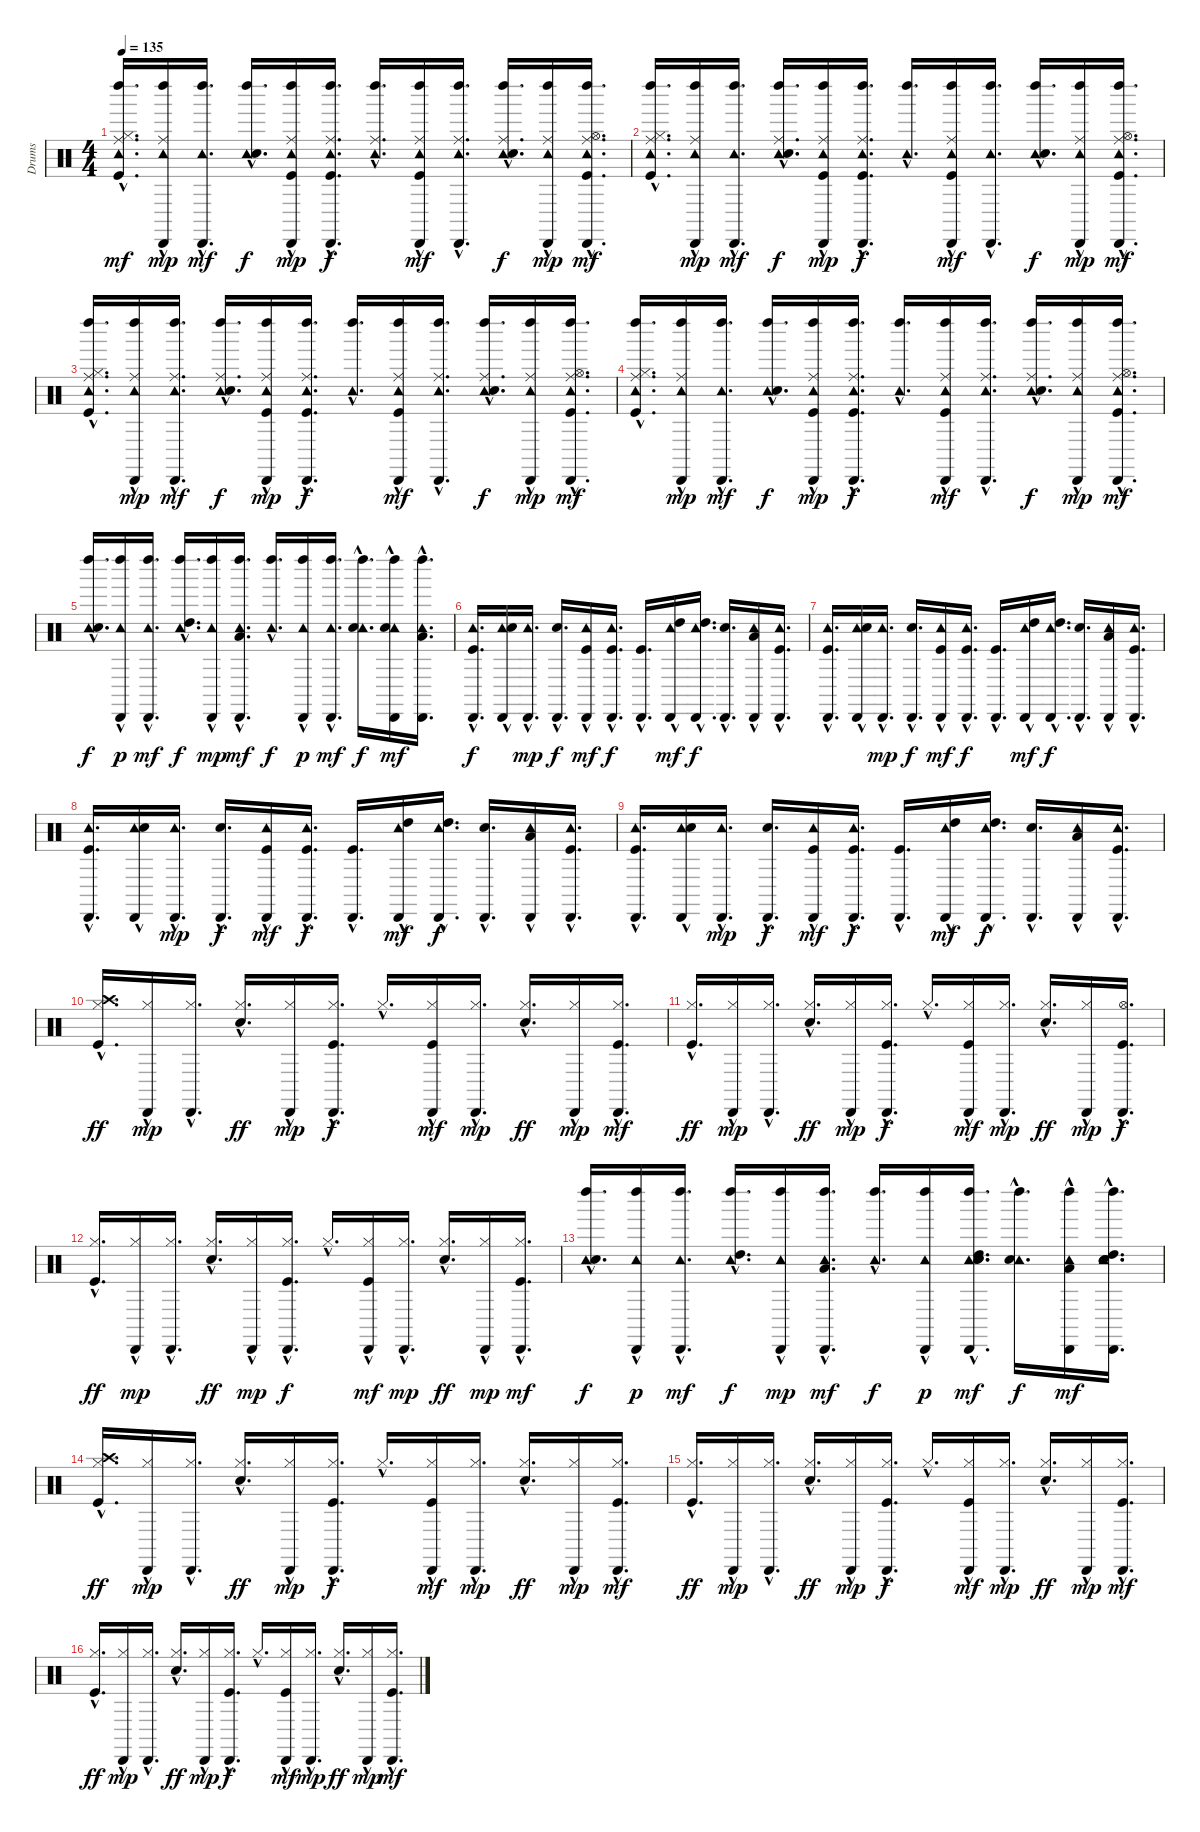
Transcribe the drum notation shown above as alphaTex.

\track ("Drums" "Drums") {instrument percussion}
\staff {score}
\articulation defaults
\ts (4 4)
\tempo 135
\clef neutral
\ks c
("Left Maraca (hit)"{hac} "Tambourine (hit)"{hac} "Ride (middle)"{hac} "Hi-Hat (closed)"{hac} "Kick (hit)"{hac}).16{d dy mf} ("Left Maraca (hit)"{hac} "Cabasa (hit)"{hac} "Tambourine (hit)"{hac} "Ride (middle)"{hac}).16{dy mp} ("Left Maraca (hit)"{hac} "Cabasa (hit)"{hac} "Tambourine (hit)"{hac}).16{d dy mf} ("Left Maraca (hit)"{hac} "Tambourine (hit)"{hac} "Snare (hit) 2"{hac}).16{d dy f} ("Left Maraca (hit)"{hac} "Cabasa (hit)"{hac} "Tambourine (hit)"{hac} "Ride (middle)"{hac} "Kick (hit)"{hac}).16{dy mp} ("Left Maraca (hit)"{hac} "Cabasa (hit)"{hac} "Tambourine (hit)"{hac} "Ride (middle)"{hac} "Kick (hit)"{hac}).16{d dy f} ("Left Maraca (hit)"{hac} "Tambourine (hit)"{hac} "Ride (middle)"{hac}).16{d} ("Left Maraca (hit)"{hac} "Cabasa (hit)"{hac} "Tambourine (hit)"{hac} "Ride (middle)"{hac} "Kick (hit)"{hac}).16{dy mf} ("Left Maraca (hit)"{hac} "Cabasa (hit)"{hac} "Tambourine (hit)"{hac} "Ride (middle)"{hac}).16{d} ("Left Maraca (hit)"{hac} "Tambourine (hit)"{hac} "Ride (middle)"{hac} "Snare (hit) 2"{hac}).16{d dy f} ("Left Maraca (hit)"{hac} "Cabasa (hit)"{hac} "Tambourine (hit)"{hac} "Ride (middle)"{hac}).16{dy mp} ("Left Maraca (hit)"{hac} "Cabasa (hit)"{hac} "Tambourine (hit)"{hac} "Ride (middle)"{hac} "Hi-Hat (open)"{hac} "Kick (hit)"{hac}).16{d dy mf} |
("Left Maraca (hit)"{hac} "Tambourine (hit)"{hac} "Ride (middle)"{hac} "Hi-Hat (closed)"{hac} "Kick (hit)"{hac}).16{d} ("Left Maraca (hit)"{hac} "Cabasa (hit)"{hac} "Tambourine (hit)"{hac} "Ride (middle)"{hac}).16{dy mp} ("Left Maraca (hit)"{hac} "Cabasa (hit)"{hac} "Tambourine (hit)"{hac}).16{d dy mf} ("Left Maraca (hit)"{hac} "Tambourine (hit)"{hac} "Ride (middle)"{hac} "Snare (hit) 2"{hac}).16{d dy f} ("Left Maraca (hit)"{hac} "Cabasa (hit)"{hac} "Tambourine (hit)"{hac} "Ride (middle)"{hac} "Kick (hit)"{hac}).16{dy mp} ("Left Maraca (hit)"{hac} "Cabasa (hit)"{hac} "Tambourine (hit)"{hac} "Ride (middle)"{hac} "Kick (hit)"{hac}).16{d dy f} ("Left Maraca (hit)"{hac} "Tambourine (hit)"{hac}).16{d} ("Left Maraca (hit)"{hac} "Cabasa (hit)"{hac} "Tambourine (hit)"{hac} "Ride (middle)"{hac} "Kick (hit)"{hac}).16{dy mf} ("Left Maraca (hit)"{hac} "Cabasa (hit)"{hac} "Tambourine (hit)"{hac}).16{d} ("Left Maraca (hit)"{hac} "Tambourine (hit)"{hac} "Snare (hit) 2"{hac}).16{d dy f} ("Left Maraca (hit)"{hac} "Cabasa (hit)"{hac} "Tambourine (hit)"{hac} "Ride (middle)"{hac}).16{dy mp} ("Left Maraca (hit)"{hac} "Cabasa (hit)"{hac} "Tambourine (hit)"{hac} "Ride (middle)"{hac} "Hi-Hat (open)"{hac} "Kick (hit)"{hac}).16{d dy mf} |
("Left Maraca (hit)"{hac} "Tambourine (hit)"{hac} "Ride (middle)"{hac} "Hi-Hat (closed)"{hac} "Kick (hit)"{hac}).16{d} ("Left Maraca (hit)"{hac} "Cabasa (hit)"{hac} "Tambourine (hit)"{hac} "Ride (middle)"{hac}).16{dy mp} ("Left Maraca (hit)"{hac} "Cabasa (hit)"{hac} "Tambourine (hit)"{hac} "Ride (middle)"{hac}).16{d dy mf} ("Left Maraca (hit)"{hac} "Tambourine (hit)"{hac} "Ride (middle)"{hac} "Snare (hit) 2"{hac}).16{d dy f} ("Left Maraca (hit)"{hac} "Cabasa (hit)"{hac} "Tambourine (hit)"{hac} "Ride (middle)"{hac} "Kick (hit)"{hac}).16{dy mp} ("Left Maraca (hit)"{hac} "Cabasa (hit)"{hac} "Tambourine (hit)"{hac} "Ride (middle)"{hac} "Kick (hit)"{hac}).16{d dy f} ("Left Maraca (hit)"{hac} "Tambourine (hit)"{hac}).16{d} ("Left Maraca (hit)"{hac} "Cabasa (hit)"{hac} "Tambourine (hit)"{hac} "Ride (middle)"{hac} "Kick (hit)"{hac}).16{dy mf} ("Left Maraca (hit)"{hac} "Cabasa (hit)"{hac} "Tambourine (hit)"{hac} "Ride (middle)"{hac}).16{d} ("Left Maraca (hit)"{hac} "Tambourine (hit)"{hac} "Ride (middle)"{hac} "Snare (hit) 2"{hac}).16{d dy f} ("Left Maraca (hit)"{hac} "Cabasa (hit)"{hac} "Tambourine (hit)"{hac} "Ride (middle)"{hac}).16{dy mp} ("Left Maraca (hit)"{hac} "Cabasa (hit)"{hac} "Tambourine (hit)"{hac} "Ride (middle)"{hac} "Hi-Hat (open)"{hac} "Kick (hit)"{hac}).16{d dy mf} |
("Left Maraca (hit)"{hac} "Tambourine (hit)"{hac} "Ride (middle)"{hac} "Hi-Hat (closed)"{hac} "Kick (hit)"{hac}).16{d} ("Left Maraca (hit)"{hac} "Cabasa (hit)"{hac} "Tambourine (hit)"{hac} "Ride (middle)"{hac}).16{dy mp} ("Left Maraca (hit)"{hac} "Cabasa (hit)"{hac} "Tambourine (hit)"{hac}).16{d dy mf} ("Left Maraca (hit)"{hac} "Tambourine (hit)"{hac} "Snare (hit) 2"{hac}).16{d dy f} ("Left Maraca (hit)"{hac} "Cabasa (hit)"{hac} "Tambourine (hit)"{hac} "Ride (middle)"{hac} "Kick (hit)"{hac}).16{dy mp} ("Left Maraca (hit)"{hac} "Cabasa (hit)"{hac} "Tambourine (hit)"{hac} "Ride (middle)"{hac} "Kick (hit)"{hac}).16{d dy f} ("Left Maraca (hit)"{hac} "Tambourine (hit)"{hac}).16{d} ("Left Maraca (hit)"{hac} "Cabasa (hit)"{hac} "Tambourine (hit)"{hac} "Ride (middle)"{hac} "Kick (hit)"{hac}).16{dy mf} ("Left Maraca (hit)"{hac} "Cabasa (hit)"{hac} "Tambourine (hit)"{hac} "Ride (middle)"{hac}).16{d} ("Left Maraca (hit)"{hac} "Tambourine (hit)"{hac} "Ride (middle)"{hac} "Snare (hit) 2"{hac}).16{d dy f} ("Left Maraca (hit)"{hac} "Cabasa (hit)"{hac} "Tambourine (hit)"{hac} "Ride (middle)"{hac}).16{dy mp} ("Left Maraca (hit)"{hac} "Cabasa (hit)"{hac} "Tambourine (hit)"{hac} "Ride (middle)"{hac} "Hi-Hat (open)"{hac} "Kick (hit)"{hac}).16{d dy mf} |
("Left Maraca (hit)"{hac} "Tambourine (hit)"{hac} "Snare (hit) 2"{hac}).16{d dy f} ("Left Maraca (hit)"{hac} "Cabasa (hit)"{hac} "Tambourine (hit)"{hac}).16{dy p} ("Left Maraca (hit)"{hac} "Cabasa (hit)"{hac} "Tambourine (hit)"{hac}).16{d dy mf} ("Left Maraca (hit)"{hac} "Tambourine (hit)"{hac} "High Tom (hit)"{hac}).16{d dy f} ("Left Maraca (hit)"{hac} "Cabasa (hit)"{hac} "Tambourine (hit)"{hac}).16{dy mp} ("Left Maraca (hit)"{hac} "Cabasa (hit)"{hac} "Tambourine (hit)"{hac} "Low Tom (hit)"{hac}).16{d dy mf} ("Left Maraca (hit)"{hac} "Tambourine (hit)"{hac}).16{d dy f} ("Left Maraca (hit)"{hac} "Cabasa (hit)"{hac} "Tambourine (hit)"{hac}).16{dy p} ("Left Maraca (hit)"{hac} "Cabasa (hit)"{hac} "Tambourine (hit)"{hac}).16{d dy mf} ("Left Maraca (hit)"{hac} "Tambourine (hit)"{hac} "Snare (hit) 2"{hac}).16{d dy f} ("Left Maraca (hit)"{hac} "Cabasa (hit)"{hac} "Tambourine (hit)"{hac} "Snare (hit) 2"{hac}).16{dy mf} ("Left Maraca (hit)"{hac} "Cabasa (hit)"{hac} "Tambourine (hit)"{hac} "Low Floor Tom (hit)"{hac}).16{d} |
("Cabasa (hit)"{hac} "Tambourine (hit)"{hac} "Kick (hit)"{hac}).16{d dy f} ("Cabasa (hit)"{hac} "Tambourine (hit)"{hac} "Snare (hit) 2"{hac}).16 ("Cabasa (hit)"{hac} "Tambourine (hit)"{hac}).16{d dy mp} ("Cabasa (hit)"{hac} "Snare (hit) 2"{hac}).16{d dy f} ("Cabasa (hit)"{hac} "Tambourine (hit)"{hac} "Kick (hit)"{hac}).16{dy mf} ("Cabasa (hit)"{hac} "Tambourine (hit)"{hac} "Kick (hit)"{hac}).16{d dy f} ("Cabasa (hit)"{hac} "Kick (hit)"{hac}).16{d} ("Cabasa (hit)"{hac} "Tambourine (hit)"{hac} "High Tom (hit)"{hac}).16{dy mf} ("Cabasa (hit)"{hac} "Tambourine (hit)"{hac} "High Tom (hit)"{hac}).16{d dy f} ("Cabasa (hit)"{hac} "Snare (hit) 2"{hac}).16{d} ("Cabasa (hit)"{hac} "Tambourine (hit)"{hac} "Low Tom (hit)"{hac}).16 ("Cabasa (hit)"{hac} "Tambourine (hit)"{hac} "Kick (hit)"{hac}).16{d} |
("Cabasa (hit)"{hac} "Tambourine (hit)"{hac} "Kick (hit)"{hac}).16{d} ("Cabasa (hit)"{hac} "Tambourine (hit)"{hac} "Snare (hit) 2"{hac}).16 ("Cabasa (hit)"{hac} "Tambourine (hit)"{hac}).16{d dy mp} ("Cabasa (hit)"{hac} "Snare (hit) 2"{hac}).16{d dy f} ("Cabasa (hit)"{hac} "Tambourine (hit)"{hac} "Kick (hit)"{hac}).16{dy mf} ("Cabasa (hit)"{hac} "Tambourine (hit)"{hac} "Kick (hit)"{hac}).16{d dy f} ("Cabasa (hit)"{hac} "Kick (hit)"{hac}).16{d} ("Cabasa (hit)"{hac} "Tambourine (hit)"{hac} "High Tom (hit)"{hac}).16{dy mf} ("Cabasa (hit)"{hac} "Tambourine (hit)"{hac} "High Tom (hit)"{hac}).16{d dy f} ("Cabasa (hit)"{hac} "Snare (hit) 2"{hac}).16{d} ("Cabasa (hit)"{hac} "Tambourine (hit)"{hac} "Low Tom (hit)"{hac}).16 ("Cabasa (hit)"{hac} "Tambourine (hit)"{hac} "Kick (hit)"{hac}).16{d} |
("Cabasa (hit)"{hac} "Tambourine (hit)"{hac} "Kick (hit)"{hac}).16{d} ("Cabasa (hit)"{hac} "Tambourine (hit)"{hac} "Snare (hit) 2"{hac}).16 ("Cabasa (hit)"{hac} "Tambourine (hit)"{hac}).16{d dy mp} ("Cabasa (hit)"{hac} "Snare (hit) 2"{hac}).16{d dy f} ("Cabasa (hit)"{hac} "Tambourine (hit)"{hac} "Kick (hit)"{hac}).16{dy mf} ("Cabasa (hit)"{hac} "Tambourine (hit)"{hac} "Kick (hit)"{hac}).16{d dy f} ("Cabasa (hit)"{hac} "Kick (hit)"{hac}).16{d} ("Cabasa (hit)"{hac} "Tambourine (hit)"{hac} "High Tom (hit)"{hac}).16{dy mf} ("Cabasa (hit)"{hac} "Tambourine (hit)"{hac} "High Tom (hit)"{hac}).16{d dy f} ("Cabasa (hit)"{hac} "Snare (hit) 2"{hac}).16{d} ("Cabasa (hit)"{hac} "Tambourine (hit)"{hac} "Low Tom (hit)"{hac}).16 ("Cabasa (hit)"{hac} "Tambourine (hit)"{hac} "Kick (hit)"{hac}).16{d} |
("Cabasa (hit)"{hac} "Tambourine (hit)"{hac} "Kick (hit)"{hac}).16{d} ("Cabasa (hit)"{hac} "Tambourine (hit)"{hac} "Snare (hit) 2"{hac}).16 ("Cabasa (hit)"{hac} "Tambourine (hit)"{hac}).16{d dy mp} ("Cabasa (hit)"{hac} "Snare (hit) 2"{hac}).16{d dy f} ("Cabasa (hit)"{hac} "Tambourine (hit)"{hac} "Kick (hit)"{hac}).16{dy mf} ("Cabasa (hit)"{hac} "Tambourine (hit)"{hac} "Kick (hit)"{hac}).16{d dy f} ("Cabasa (hit)"{hac} "Kick (hit)"{hac}).16{d} ("Cabasa (hit)"{hac} "Tambourine (hit)"{hac} "High Tom (hit)"{hac}).16{dy mf} ("Cabasa (hit)"{hac} "Tambourine (hit)"{hac} "High Tom (hit)"{hac}).16{d dy f} ("Cabasa (hit)"{hac} "Snare (hit) 2"{hac}).16{d} ("Cabasa (hit)"{hac} "Tambourine (hit)"{hac} "Low Tom (hit)"{hac}).16 ("Cabasa (hit)"{hac} "Tambourine (hit)"{hac} "Kick (hit)"{hac}).16{d} |
("Crash high (hit)"{hac} "Hi-Hat (closed)"{hac} "Kick (hit)"{hac}).16{d dy ff} ("Cabasa (hit)"{hac} "Hi-Hat (closed)"{hac}).16{dy mp} ("Cabasa (hit)"{hac} "Hi-Hat (closed)"{hac}).16{d} ("Hi-Hat (closed)"{hac} "Snare (hit) 2"{hac}).16{d dy ff} ("Cabasa (hit)"{hac} "Hi-Hat (closed)"{hac}).16{dy mp} ("Cabasa (hit)"{hac} "Hi-Hat (closed)"{hac} "Kick (hit)"{hac}).16{d dy f} "Hi-Hat (closed)"{hac}.16{d} ("Cabasa (hit)"{hac} "Hi-Hat (closed)"{hac} "Kick (hit)"{hac}).16{dy mf} ("Cabasa (hit)"{hac} "Hi-Hat (closed)"{hac}).16{d dy mp} ("Hi-Hat (closed)"{hac} "Snare (hit) 2"{hac}).16{d dy ff} ("Cabasa (hit)"{hac} "Hi-Hat (closed)"{hac}).16{dy mp} ("Cabasa (hit)"{hac} "Hi-Hat (closed)"{hac} "Kick (hit)"{hac}).16{d dy mf} |
("Hi-Hat (closed)"{hac} "Kick (hit)"{hac}).16{d dy ff} ("Cabasa (hit)"{hac} "Hi-Hat (closed)"{hac}).16{dy mp} ("Cabasa (hit)"{hac} "Hi-Hat (closed)"{hac}).16{d} ("Hi-Hat (closed)"{hac} "Snare (hit) 2"{hac}).16{d dy ff} ("Cabasa (hit)"{hac} "Hi-Hat (closed)"{hac}).16{dy mp} ("Cabasa (hit)"{hac} "Hi-Hat (closed)"{hac} "Kick (hit)"{hac}).16{d dy f} "Hi-Hat (closed)"{hac}.16{d} ("Cabasa (hit)"{hac} "Hi-Hat (closed)"{hac} "Kick (hit)"{hac}).16{dy mf} ("Cabasa (hit)"{hac} "Hi-Hat (closed)"{hac}).16{d dy mp} ("Hi-Hat (closed)"{hac} "Snare (hit) 2"{hac}).16{d dy ff} ("Cabasa (hit)"{hac} "Hi-Hat (closed)"{hac}).16{dy mp} ("Cabasa (hit)"{hac} "Hi-Hat (open)"{hac} "Kick (hit)"{hac}).16{d dy f} |
("Hi-Hat (closed)"{hac} "Kick (hit)"{hac}).16{d dy ff} ("Cabasa (hit)"{hac} "Hi-Hat (closed)"{hac}).16{dy mp} ("Cabasa (hit)"{hac} "Hi-Hat (closed)"{hac}).16{d} ("Hi-Hat (closed)"{hac} "Snare (hit) 2"{hac}).16{d dy ff} ("Cabasa (hit)"{hac} "Hi-Hat (closed)"{hac}).16{dy mp} ("Cabasa (hit)"{hac} "Hi-Hat (closed)"{hac} "Kick (hit)"{hac}).16{d dy f} "Hi-Hat (closed)"{hac}.16{d} ("Cabasa (hit)"{hac} "Hi-Hat (closed)"{hac} "Kick (hit)"{hac}).16{dy mf} ("Cabasa (hit)"{hac} "Hi-Hat (closed)"{hac}).16{d dy mp} ("Hi-Hat (closed)"{hac} "Snare (hit) 2"{hac}).16{d dy ff} ("Cabasa (hit)"{hac} "Hi-Hat (closed)"{hac}).16{dy mp} ("Cabasa (hit)"{hac} "Hi-Hat (closed)"{hac} "Kick (hit)"{hac}).16{d dy mf} |
("Left Maraca (hit)"{hac} "Tambourine (hit)"{hac} "Snare (hit) 2"{hac}).16{d dy f} ("Left Maraca (hit)"{hac} "Cabasa (hit)"{hac} "Tambourine (hit)"{hac}).16{dy p} ("Left Maraca (hit)"{hac} "Cabasa (hit)"{hac} "Tambourine (hit)"{hac}).16{d dy mf} ("Left Maraca (hit)"{hac} "Tambourine (hit)"{hac} "High Tom (hit)"{hac}).16{d dy f} ("Left Maraca (hit)"{hac} "Cabasa (hit)"{hac} "Tambourine (hit)"{hac}).16{dy mp} ("Left Maraca (hit)"{hac} "Cabasa (hit)"{hac} "Tambourine (hit)"{hac} "Low Tom (hit)"{hac}).16{d dy mf} ("Left Maraca (hit)"{hac} "Tambourine (hit)"{hac}).16{d dy f} ("Left Maraca (hit)"{hac} "Cabasa (hit)"{hac} "Tambourine (hit)"{hac}).16{dy p} ("Left Maraca (hit)"{hac} "Cabasa (hit)"{hac} "Tambourine (hit)"{hac} "High Tom (hit)"{hac} "Hand Clap (hit)"{hac} "Snare (hit) 2"{hac}).16{d dy mf} ("Left Maraca (hit)"{hac} "Tambourine (hit)"{hac} "Snare (hit) 2"{hac}).16{d dy f} ("Left Maraca (hit)"{hac} "Cabasa (hit)"{hac} "Tambourine (hit)"{hac} "Low Floor Tom (hit)"{hac}).16{dy mf} ("Left Maraca (hit)"{hac} "Cabasa (hit)"{hac} "Tambourine (hit)"{hac} "High Tom (hit)"{hac} "Hand Clap (hit)"{hac} "Snare (hit) 2"{hac}).16{d} |
("Crash high (hit)"{hac} "Hi-Hat (closed)"{hac} "Kick (hit)"{hac}).16{d dy ff} ("Cabasa (hit)"{hac} "Hi-Hat (closed)"{hac}).16{dy mp} ("Cabasa (hit)"{hac} "Hi-Hat (closed)"{hac}).16{d} ("Hi-Hat (closed)"{hac} "Snare (hit) 2"{hac}).16{d dy ff} ("Cabasa (hit)"{hac} "Hi-Hat (closed)"{hac}).16{dy mp} ("Cabasa (hit)"{hac} "Hi-Hat (closed)"{hac} "Kick (hit)"{hac}).16{d dy f} "Hi-Hat (closed)"{hac}.16{d} ("Cabasa (hit)"{hac} "Hi-Hat (closed)"{hac} "Kick (hit)"{hac}).16{dy mf} ("Cabasa (hit)"{hac} "Hi-Hat (closed)"{hac}).16{d dy mp} ("Hi-Hat (closed)"{hac} "Snare (hit) 2"{hac}).16{d dy ff} ("Cabasa (hit)"{hac} "Hi-Hat (closed)"{hac}).16{dy mp} ("Cabasa (hit)"{hac} "Hi-Hat (closed)"{hac} "Kick (hit)"{hac}).16{d dy mf} |
("Hi-Hat (closed)"{hac} "Kick (hit)"{hac}).16{d dy ff} ("Cabasa (hit)"{hac} "Hi-Hat (closed)"{hac}).16{dy mp} ("Cabasa (hit)"{hac} "Hi-Hat (closed)"{hac}).16{d} ("Hi-Hat (closed)"{hac} "Snare (hit) 2"{hac}).16{d dy ff} ("Cabasa (hit)"{hac} "Hi-Hat (closed)"{hac}).16{dy mp} ("Cabasa (hit)"{hac} "Hi-Hat (closed)"{hac} "Kick (hit)"{hac}).16{d dy f} "Hi-Hat (closed)"{hac}.16{d} ("Cabasa (hit)"{hac} "Hi-Hat (closed)"{hac} "Kick (hit)"{hac}).16{dy mf} ("Cabasa (hit)"{hac} "Hi-Hat (closed)"{hac}).16{d dy mp} ("Hi-Hat (closed)"{hac} "Snare (hit) 2"{hac}).16{d dy ff} ("Cabasa (hit)"{hac} "Hi-Hat (closed)"{hac}).16{dy mp} ("Cabasa (hit)"{hac} "Hi-Hat (closed)"{hac} "Kick (hit)"{hac}).16{d dy mf} |
("Hi-Hat (closed)"{hac} "Kick (hit)"{hac}).16{d dy ff} ("Cabasa (hit)"{hac} "Hi-Hat (closed)"{hac}).16{dy mp} ("Cabasa (hit)"{hac} "Hi-Hat (closed)"{hac}).16{d} ("Hi-Hat (closed)"{hac} "Snare (hit) 2"{hac}).16{d dy ff} ("Cabasa (hit)"{hac} "Hi-Hat (closed)"{hac}).16{dy mp} ("Cabasa (hit)"{hac} "Hi-Hat (closed)"{hac} "Kick (hit)"{hac}).16{d dy f} "Hi-Hat (closed)"{hac}.16{d} ("Cabasa (hit)"{hac} "Hi-Hat (closed)"{hac} "Kick (hit)"{hac}).16{dy mf} ("Cabasa (hit)"{hac} "Hi-Hat (closed)"{hac}).16{d dy mp} ("Hi-Hat (closed)"{hac} "Snare (hit) 2"{hac}).16{d dy ff} ("Cabasa (hit)"{hac} "Hi-Hat (closed)"{hac}).16{dy mp} ("Cabasa (hit)"{hac} "Hi-Hat (closed)"{hac} "Kick (hit)"{hac}).16{d dy mf}
